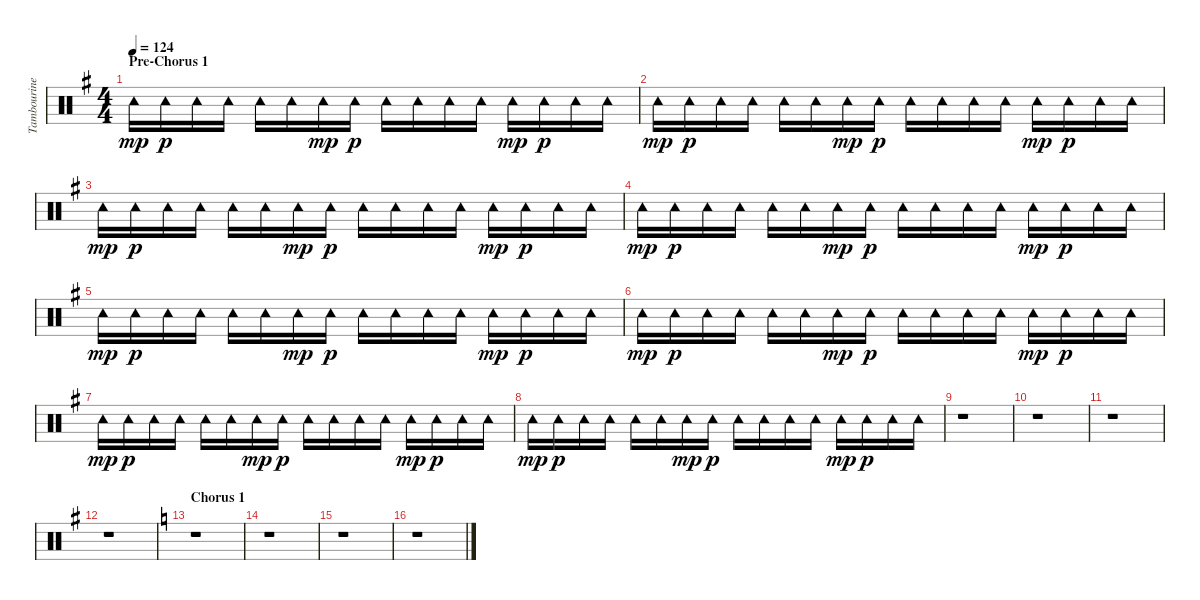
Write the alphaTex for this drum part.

\track ("Tambourine" "Tambourine") {instrument percussion}
\staff {score}
\articulation defaults
\ts (4 4)
\section ("" "Pre-Chorus 1")
\tempo 124
\clef neutral
\ks g "Tambourine (hit)".16{dy mp} "Tambourine (hit)".16{dy p} "Tambourine (hit)".16 "Tambourine (hit)".16 "Tambourine (hit)".16 "Tambourine (hit)".16 "Tambourine (hit)".16{dy mp} "Tambourine (hit)".16{dy p} "Tambourine (hit)".16 "Tambourine (hit)".16 "Tambourine (hit)".16 "Tambourine (hit)".16 "Tambourine (hit)".16{dy mp} "Tambourine (hit)".16{dy p} "Tambourine (hit)".16 "Tambourine (hit)".16
|
"Tambourine (hit)".16{dy mp} "Tambourine (hit)".16{dy p} "Tambourine (hit)".16 "Tambourine (hit)".16 "Tambourine (hit)".16 "Tambourine (hit)".16 "Tambourine (hit)".16{dy mp} "Tambourine (hit)".16{dy p} "Tambourine (hit)".16 "Tambourine (hit)".16 "Tambourine (hit)".16 "Tambourine (hit)".16 "Tambourine (hit)".16{dy mp} "Tambourine (hit)".16{dy p} "Tambourine (hit)".16 "Tambourine (hit)".16 |
"Tambourine (hit)".16{dy mp} "Tambourine (hit)".16{dy p} "Tambourine (hit)".16 "Tambourine (hit)".16 "Tambourine (hit)".16 "Tambourine (hit)".16 "Tambourine (hit)".16{dy mp} "Tambourine (hit)".16{dy p} "Tambourine (hit)".16 "Tambourine (hit)".16 "Tambourine (hit)".16 "Tambourine (hit)".16 "Tambourine (hit)".16{dy mp} "Tambourine (hit)".16{dy p} "Tambourine (hit)".16 "Tambourine (hit)".16 |
"Tambourine (hit)".16{dy mp} "Tambourine (hit)".16{dy p} "Tambourine (hit)".16 "Tambourine (hit)".16 "Tambourine (hit)".16 "Tambourine (hit)".16 "Tambourine (hit)".16{dy mp} "Tambourine (hit)".16{dy p} "Tambourine (hit)".16 "Tambourine (hit)".16 "Tambourine (hit)".16 "Tambourine (hit)".16 "Tambourine (hit)".16{dy mp} "Tambourine (hit)".16{dy p} "Tambourine (hit)".16 "Tambourine (hit)".16 |
"Tambourine (hit)".16{dy mp} "Tambourine (hit)".16{dy p} "Tambourine (hit)".16 "Tambourine (hit)".16 "Tambourine (hit)".16 "Tambourine (hit)".16 "Tambourine (hit)".16{dy mp} "Tambourine (hit)".16{dy p} "Tambourine (hit)".16 "Tambourine (hit)".16 "Tambourine (hit)".16 "Tambourine (hit)".16 "Tambourine (hit)".16{dy mp} "Tambourine (hit)".16{dy p} "Tambourine (hit)".16 "Tambourine (hit)".16 |
"Tambourine (hit)".16{dy mp} "Tambourine (hit)".16{dy p} "Tambourine (hit)".16 "Tambourine (hit)".16 "Tambourine (hit)".16 "Tambourine (hit)".16 "Tambourine (hit)".16{dy mp} "Tambourine (hit)".16{dy p} "Tambourine (hit)".16 "Tambourine (hit)".16 "Tambourine (hit)".16 "Tambourine (hit)".16 "Tambourine (hit)".16{dy mp} "Tambourine (hit)".16{dy p} "Tambourine (hit)".16 "Tambourine (hit)".16 |
"Tambourine (hit)".16{dy mp} "Tambourine (hit)".16{dy p} "Tambourine (hit)".16 "Tambourine (hit)".16 "Tambourine (hit)".16 "Tambourine (hit)".16 "Tambourine (hit)".16{dy mp} "Tambourine (hit)".16{dy p} "Tambourine (hit)".16 "Tambourine (hit)".16 "Tambourine (hit)".16 "Tambourine (hit)".16 "Tambourine (hit)".16{dy mp} "Tambourine (hit)".16{dy p} "Tambourine (hit)".16 "Tambourine (hit)".16 |
"Tambourine (hit)".16{dy mp} "Tambourine (hit)".16{dy p} "Tambourine (hit)".16 "Tambourine (hit)".16 "Tambourine (hit)".16 "Tambourine (hit)".16 "Tambourine (hit)".16{dy mp} "Tambourine (hit)".16{dy p} "Tambourine (hit)".16 "Tambourine (hit)".16 "Tambourine (hit)".16 "Tambourine (hit)".16 "Tambourine (hit)".16{dy mp} "Tambourine (hit)".16{dy p} "Tambourine (hit)".16 "Tambourine (hit)".16 |
r.1 |
r.1 |
r.1 |
r.1 |
\section ("" "Chorus 1")
\ks aminor
r.1 |
r.1 |
r.1 |
r.1
